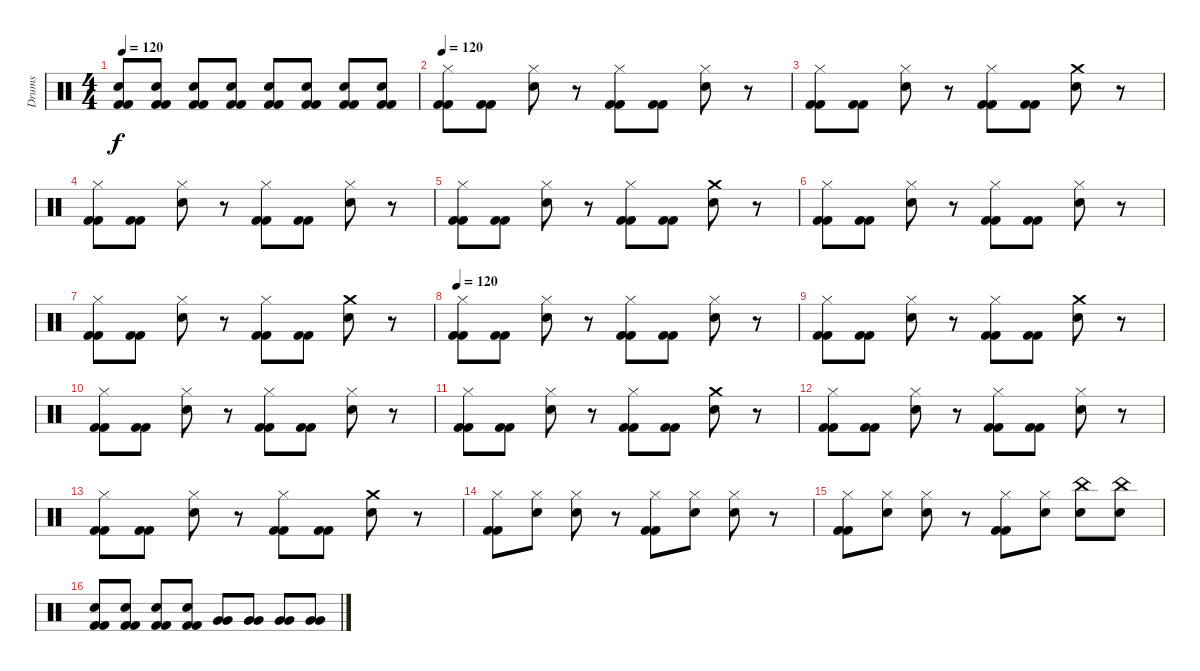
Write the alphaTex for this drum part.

\track ("Drums" "Drums") {instrument percussion}
\staff {score}
\articulation defaults
\ts (4 4)
\tempo 120
\clef neutral
\ks c
("Kick (hit) 2" "Kick (hit) 2" "Electric Snare (hit)").8{dy f volume 3} ("Electric Snare (hit)" "Kick (hit) 2" "Kick (hit) 2").8{volume 5} ("Electric Snare (hit)" "Kick (hit) 2" "Kick (hit) 2").8{volume 7} ("Kick (hit) 2" "Kick (hit) 2" "Electric Snare (hit)").8{volume 10} ("Electric Snare (hit)" "Kick (hit) 2" "Kick (hit) 2").8{volume 13} ("Kick (hit) 2" "Kick (hit) 2" "Electric Snare (hit)").8{volume 13} ("Electric Snare (hit)" "Kick (hit) 2" "Kick (hit) 2").8{volume 13} ("Kick (hit) 2" "Kick (hit) 2" "Electric Snare (hit)").8{volume 13} |
\tempo 120
("Hi-Hat (closed)" "Kick (hit) 2" "Kick (hit) 2").8 ("Kick (hit) 2" "Kick (hit) 2").8 ("Electric Snare (hit)" "Hi-Hat (closed)").8 r.8 ("Hi-Hat (closed)" "Kick (hit) 2" "Kick (hit) 2").8 ("Kick (hit) 2" "Kick (hit) 2").8 ("Electric Snare (hit)" "Hi-Hat (closed)").8 r.8 |
("Hi-Hat (closed)" "Kick (hit) 2" "Kick (hit) 2").8 ("Kick (hit) 2" "Kick (hit) 2").8 ("Electric Snare (hit)" "Hi-Hat (closed)").8 r.8 ("Hi-Hat (closed)" "Kick (hit) 2" "Kick (hit) 2").8 ("Kick (hit) 2" "Kick (hit) 2").8 ("Electric Snare (hit)" "Crash medium (hit)").8 r.8 |
("Hi-Hat (closed)" "Kick (hit) 2" "Kick (hit) 2").8 ("Kick (hit) 2" "Kick (hit) 2").8 ("Electric Snare (hit)" "Hi-Hat (closed)").8 r.8 ("Hi-Hat (closed)" "Kick (hit) 2" "Kick (hit) 2").8 ("Kick (hit) 2" "Kick (hit) 2").8 ("Electric Snare (hit)" "Hi-Hat (closed)").8 r.8 |
("Hi-Hat (closed)" "Kick (hit) 2" "Kick (hit) 2").8 ("Kick (hit) 2" "Kick (hit) 2").8 ("Electric Snare (hit)" "Hi-Hat (closed)").8 r.8 ("Hi-Hat (closed)" "Kick (hit) 2" "Kick (hit) 2").8 ("Kick (hit) 2" "Kick (hit) 2").8 ("Electric Snare (hit)" "Crash medium (hit)").8 r.8 |
("Hi-Hat (closed)" "Kick (hit) 2" "Kick (hit) 2").8 ("Kick (hit) 2" "Kick (hit) 2").8 ("Electric Snare (hit)" "Hi-Hat (closed)").8 r.8 ("Hi-Hat (closed)" "Kick (hit) 2" "Kick (hit) 2").8 ("Kick (hit) 2" "Kick (hit) 2").8 ("Electric Snare (hit)" "Hi-Hat (closed)").8 r.8 |
("Hi-Hat (closed)" "Kick (hit) 2" "Kick (hit) 2").8 ("Kick (hit) 2" "Kick (hit) 2").8 ("Electric Snare (hit)" "Hi-Hat (closed)").8 r.8 ("Hi-Hat (closed)" "Kick (hit) 2" "Kick (hit) 2").8 ("Kick (hit) 2" "Kick (hit) 2").8 ("Electric Snare (hit)" "Crash medium (hit)").8 r.8 |
\tempo 120
("Hi-Hat (closed)" "Kick (hit) 2" "Kick (hit) 2").8 ("Kick (hit) 2" "Kick (hit) 2").8 ("Electric Snare (hit)" "Hi-Hat (closed)").8 r.8 ("Hi-Hat (closed)" "Kick (hit) 2" "Kick (hit) 2").8 ("Kick (hit) 2" "Kick (hit) 2").8 ("Electric Snare (hit)" "Hi-Hat (closed)").8 r.8 |
("Hi-Hat (closed)" "Kick (hit) 2" "Kick (hit) 2").8 ("Kick (hit) 2" "Kick (hit) 2").8 ("Electric Snare (hit)" "Hi-Hat (closed)").8 r.8 ("Hi-Hat (closed)" "Kick (hit) 2" "Kick (hit) 2").8 ("Kick (hit) 2" "Kick (hit) 2").8 ("Electric Snare (hit)" "Crash medium (hit)").8 r.8 |
("Hi-Hat (closed)" "Kick (hit) 2" "Kick (hit) 2").8 ("Kick (hit) 2" "Kick (hit) 2").8 ("Electric Snare (hit)" "Hi-Hat (closed)").8 r.8 ("Hi-Hat (closed)" "Kick (hit) 2" "Kick (hit) 2").8 ("Kick (hit) 2" "Kick (hit) 2").8 ("Electric Snare (hit)" "Hi-Hat (closed)").8 r.8 |
("Hi-Hat (closed)" "Kick (hit) 2" "Kick (hit) 2").8 ("Kick (hit) 2" "Kick (hit) 2").8 ("Electric Snare (hit)" "Hi-Hat (closed)").8 r.8 ("Hi-Hat (closed)" "Kick (hit) 2" "Kick (hit) 2").8 ("Kick (hit) 2" "Kick (hit) 2").8 ("Electric Snare (hit)" "Crash medium (hit)").8 r.8 |
("Hi-Hat (closed)" "Kick (hit) 2" "Kick (hit) 2").8 ("Kick (hit) 2" "Kick (hit) 2").8 ("Electric Snare (hit)" "Hi-Hat (closed)").8 r.8 ("Hi-Hat (closed)" "Kick (hit) 2" "Kick (hit) 2").8 ("Kick (hit) 2" "Kick (hit) 2").8 ("Electric Snare (hit)" "Hi-Hat (closed)").8 r.8 |
("Hi-Hat (closed)" "Kick (hit) 2" "Kick (hit) 2").8 ("Kick (hit) 2" "Kick (hit) 2").8 ("Electric Snare (hit)" "Hi-Hat (closed)").8 r.8 ("Hi-Hat (closed)" "Kick (hit) 2" "Kick (hit) 2").8 ("Kick (hit) 2" "Kick (hit) 2").8 ("Electric Snare (hit)" "Crash medium (hit)").8 r.8 |
("Hi-Hat (closed)" "Kick (hit) 2" "Kick (hit) 2").8 ("Electric Snare (hit)" "Hi-Hat (closed)").8 ("Electric Snare (hit)" "Hi-Hat (closed)").8 r.8 ("Hi-Hat (closed)" "Kick (hit) 2" "Kick (hit) 2").8 ("Electric Snare (hit)" "Hi-Hat (closed)").8 ("Electric Snare (hit)" "Hi-Hat (closed)").8 r.8 |
("Hi-Hat (closed)" "Kick (hit) 2" "Kick (hit) 2").8 ("Electric Snare (hit)" "Hi-Hat (closed)").8 ("Electric Snare (hit)" "Hi-Hat (closed)").8 r.8 ("Hi-Hat (closed)" "Kick (hit) 2" "Kick (hit) 2").8 ("Electric Snare (hit)" "Hi-Hat (closed)").8 ("Electric Snare (hit)" "China (hit)").8 ("China (hit)" "Electric Snare (hit)").8 |
("Electric Snare (hit)" "Kick (hit) 2" "Kick (hit) 2").8 ("Kick (hit) 2" "Kick (hit) 2" "Electric Snare (hit)").8 ("Electric Snare (hit)" "Kick (hit) 2" "Kick (hit) 2").8 ("Kick (hit) 2" "Kick (hit) 2" "Electric Snare (hit)").8 ("Very Low Tom (hit)" "Very Low Tom (hit)").8 ("Very Low Tom (hit)" "Very Low Tom (hit)").8 ("Very Low Tom (hit)" "Very Low Tom (hit)").8 ("Very Low Tom (hit)" "Very Low Tom (hit)").8
